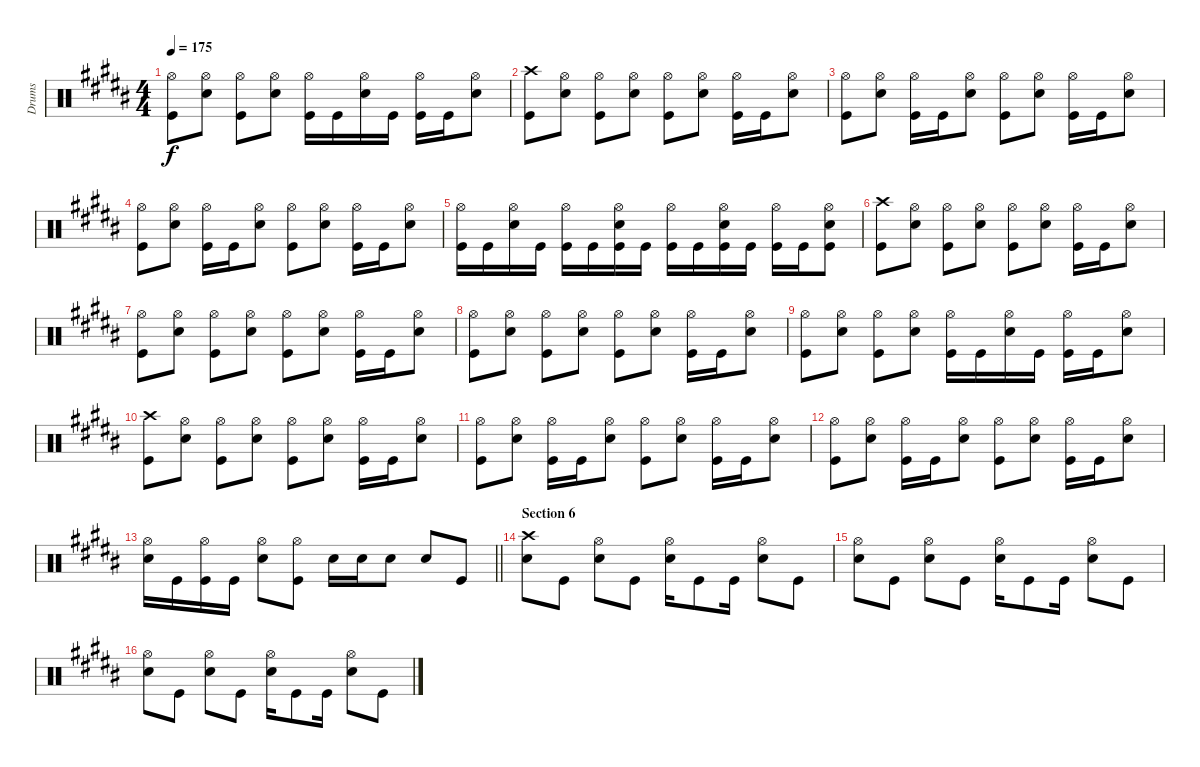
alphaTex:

\track ("Drums" "Drums") {instrument percussion}
\staff {score}
\articulation defaults
\ts (4 4)
\tempo 175
\clef neutral
\ks b
("Hi-Hat (open)" "Kick (hit)").8{dy f} ("Hi-Hat (open)" "Snare (hit) 2").8 ("Hi-Hat (open)" "Kick (hit)").8 ("Hi-Hat (open)" "Snare (hit) 2").8 ("Hi-Hat (open)" "Kick (hit)").16 "Kick (hit)".16 ("Hi-Hat (open)" "Snare (hit) 2").16 "Kick (hit)".16 ("Hi-Hat (open)" "Kick (hit)").16 "Kick (hit)".16 ("Hi-Hat (open)" "Snare (hit) 2").8 |
("Crash high (hit)" "Kick (hit)").8 ("Hi-Hat (open)" "Snare (hit) 2").8 ("Hi-Hat (open)" "Kick (hit)").8 ("Hi-Hat (open)" "Snare (hit) 2").8 ("Hi-Hat (open)" "Kick (hit)").8 ("Hi-Hat (open)" "Snare (hit) 2").8 ("Hi-Hat (open)" "Kick (hit)").16 "Kick (hit)".16 ("Hi-Hat (open)" "Snare (hit) 2").8 |
("Hi-Hat (open)" "Kick (hit)").8 ("Hi-Hat (open)" "Snare (hit) 2").8 ("Hi-Hat (open)" "Kick (hit)").16 "Kick (hit)".16 ("Hi-Hat (open)" "Snare (hit) 2").8 ("Hi-Hat (open)" "Kick (hit)").8 ("Hi-Hat (open)" "Snare (hit) 2").8 ("Hi-Hat (open)" "Kick (hit)").16 "Kick (hit)".16 ("Hi-Hat (open)" "Snare (hit) 2").8 |
("Hi-Hat (open)" "Kick (hit)").8 ("Hi-Hat (open)" "Snare (hit) 2").8 ("Hi-Hat (open)" "Kick (hit)").16 "Kick (hit)".16 ("Hi-Hat (open)" "Snare (hit) 2").8 ("Hi-Hat (open)" "Kick (hit)").8 ("Hi-Hat (open)" "Snare (hit) 2").8 ("Hi-Hat (open)" "Kick (hit)").16 "Kick (hit)".16 ("Hi-Hat (open)" "Snare (hit) 2").8 |
("Hi-Hat (open)" "Kick (hit)").16 "Kick (hit)".16 ("Hi-Hat (open)" "Snare (hit) 2").16 "Kick (hit)".16 ("Hi-Hat (open)" "Kick (hit)").16 "Kick (hit)".16 ("Hi-Hat (open)" "Kick (hit)" "Snare (hit) 2").16 "Kick (hit)".16 ("Hi-Hat (open)" "Kick (hit)").16 "Kick (hit)".16 ("Hi-Hat (open)" "Kick (hit)" "Snare (hit) 2").16 "Kick (hit)".16 ("Hi-Hat (open)" "Kick (hit)").16 "Kick (hit)".16 ("Hi-Hat (open)" "Kick (hit)" "Snare (hit) 2").8 |
("Crash high (hit)" "Kick (hit)").8 ("Hi-Hat (open)" "Snare (hit) 2").8 ("Hi-Hat (open)" "Kick (hit)").8 ("Hi-Hat (open)" "Snare (hit) 2").8 ("Hi-Hat (open)" "Kick (hit)").8 ("Hi-Hat (open)" "Snare (hit) 2").8 ("Hi-Hat (open)" "Kick (hit)").16 "Kick (hit)".16 ("Hi-Hat (open)" "Snare (hit) 2").8 |
("Hi-Hat (open)" "Kick (hit)").8 ("Hi-Hat (open)" "Snare (hit) 2").8 ("Hi-Hat (open)" "Kick (hit)").8 ("Hi-Hat (open)" "Snare (hit) 2").8 ("Hi-Hat (open)" "Kick (hit)").8 ("Hi-Hat (open)" "Snare (hit) 2").8 ("Hi-Hat (open)" "Kick (hit)").16 "Kick (hit)".16 ("Hi-Hat (open)" "Snare (hit) 2").8 |
("Hi-Hat (open)" "Kick (hit)").8 ("Hi-Hat (open)" "Snare (hit) 2").8 ("Hi-Hat (open)" "Kick (hit)").8 ("Hi-Hat (open)" "Snare (hit) 2").8 ("Hi-Hat (open)" "Kick (hit)").8 ("Hi-Hat (open)" "Snare (hit) 2").8 ("Hi-Hat (open)" "Kick (hit)").16 "Kick (hit)".16 ("Hi-Hat (open)" "Snare (hit) 2").8 |
("Hi-Hat (open)" "Kick (hit)").8 ("Hi-Hat (open)" "Snare (hit) 2").8 ("Hi-Hat (open)" "Kick (hit)").8 ("Hi-Hat (open)" "Snare (hit) 2").8 ("Hi-Hat (open)" "Kick (hit)").16 "Kick (hit)".16 ("Hi-Hat (open)" "Snare (hit) 2").16 "Kick (hit)".16 ("Hi-Hat (open)" "Kick (hit)").16 "Kick (hit)".16 ("Hi-Hat (open)" "Snare (hit) 2").8 |
("Crash high (hit)" "Kick (hit)").8 ("Hi-Hat (open)" "Snare (hit) 2").8 ("Hi-Hat (open)" "Kick (hit)").8 ("Hi-Hat (open)" "Snare (hit) 2").8 ("Hi-Hat (open)" "Kick (hit)").8 ("Hi-Hat (open)" "Snare (hit) 2").8 ("Hi-Hat (open)" "Kick (hit)").16 "Kick (hit)".16 ("Hi-Hat (open)" "Snare (hit) 2").8 |
("Hi-Hat (open)" "Kick (hit)").8 ("Hi-Hat (open)" "Snare (hit) 2").8 ("Hi-Hat (open)" "Kick (hit)").16 "Kick (hit)".16 ("Hi-Hat (open)" "Snare (hit) 2").8 ("Hi-Hat (open)" "Kick (hit)").8 ("Hi-Hat (open)" "Snare (hit) 2").8 ("Hi-Hat (open)" "Kick (hit)").16 "Kick (hit)".16 ("Hi-Hat (open)" "Snare (hit) 2").8 |
("Hi-Hat (open)" "Kick (hit)").8 ("Hi-Hat (open)" "Snare (hit) 2").8 ("Hi-Hat (open)" "Kick (hit)").16 "Kick (hit)".16 ("Hi-Hat (open)" "Snare (hit) 2").8 ("Hi-Hat (open)" "Kick (hit)").8 ("Hi-Hat (open)" "Snare (hit) 2").8 ("Hi-Hat (open)" "Kick (hit)").16 "Kick (hit)".16 ("Hi-Hat (open)" "Snare (hit) 2").8 |
\barLineRight lightlight
("Hi-Hat (open)" "Snare (hit) 2").16 "Kick (hit)".16 ("Hi-Hat (open)" "Kick (hit)").16 "Kick (hit)".16 ("Hi-Hat (open)" "Snare (hit) 2").8 ("Hi-Hat (open)" "Kick (hit)").8 "Snare (hit) 2".16 "Snare (hit) 2".16 "Snare (hit) 2".8 "Snare (hit) 2".8 "Kick (hit)".8 |
\section ("" "Section 6")
("Crash high (hit)" "Snare (hit) 2").8 "Kick (hit)".8 ("Hi-Hat (open)" "Snare (hit) 2").8 "Kick (hit)".8 ("Hi-Hat (open)" "Snare (hit) 2").16 "Kick (hit)".8 "Kick (hit)".16 ("Hi-Hat (open)" "Snare (hit) 2").8 "Kick (hit)".8 |
("Hi-Hat (open)" "Snare (hit) 2").8 "Kick (hit)".8 ("Hi-Hat (open)" "Snare (hit) 2").8 "Kick (hit)".8 ("Hi-Hat (open)" "Snare (hit) 2").16 "Kick (hit)".8 "Kick (hit)".16 ("Hi-Hat (open)" "Snare (hit) 2").8 "Kick (hit)".8 |
("Hi-Hat (open)" "Snare (hit) 2").8 "Kick (hit)".8 ("Hi-Hat (open)" "Snare (hit) 2").8 "Kick (hit)".8 ("Hi-Hat (open)" "Snare (hit) 2").16 "Kick (hit)".8 "Kick (hit)".16 ("Hi-Hat (open)" "Snare (hit) 2").8 "Kick (hit)".8
